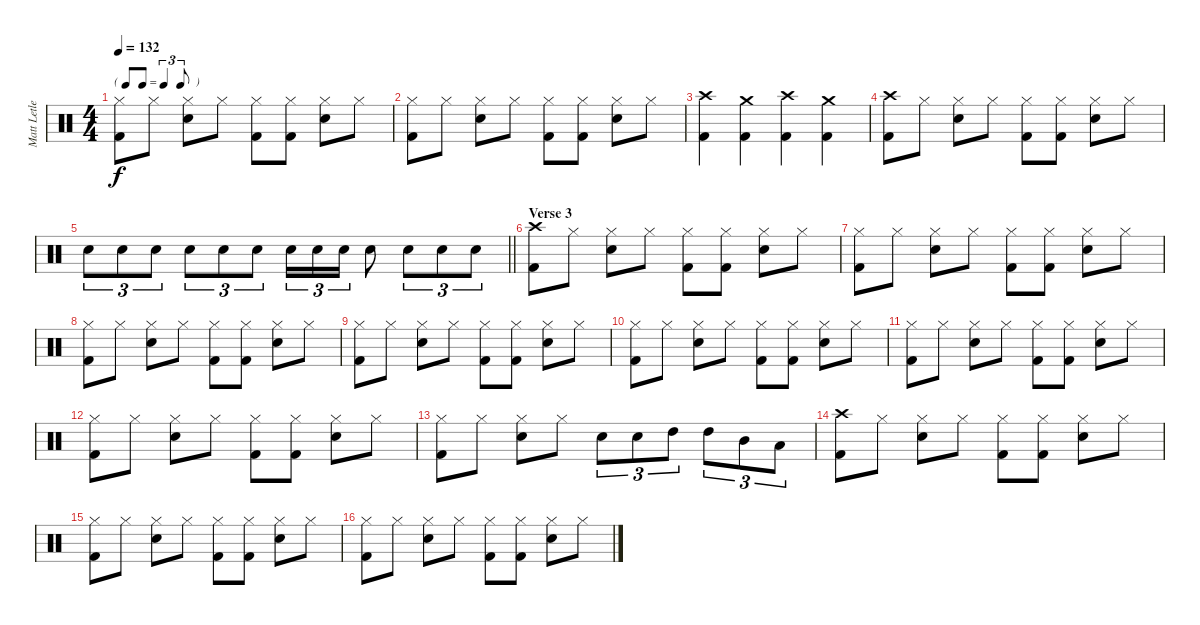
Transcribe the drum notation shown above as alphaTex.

\track ("Matt Letley" "Matt Letle") {instrument percussion}
\staff {score}
\articulation defaults
\ts (4 4)
\tf triplet8th
\tempo 132
\clef neutral
\ks c
("Hi-Hat (closed)" "Kick (hit) 2").8{dy f} "Hi-Hat (closed)".8 ("Hi-Hat (closed)" "Electric Snare (hit)").8 "Hi-Hat (closed)".8 ("Hi-Hat (closed)" "Kick (hit) 2").8 ("Hi-Hat (closed)" "Kick (hit) 2").8 ("Hi-Hat (closed)" "Electric Snare (hit)").8 "Hi-Hat (closed)".8 |
("Hi-Hat (closed)" "Kick (hit) 2").8 "Hi-Hat (closed)".8 ("Hi-Hat (closed)" "Electric Snare (hit)").8 "Hi-Hat (closed)".8 ("Hi-Hat (closed)" "Kick (hit) 2").8 ("Hi-Hat (closed)" "Kick (hit) 2").8 ("Hi-Hat (closed)" "Electric Snare (hit)").8 "Hi-Hat (closed)".8 |
("Crash high (hit)" "Kick (hit) 2").4 ("Crash medium (hit)" "Kick (hit) 2").4 ("Crash high (hit)" "Kick (hit) 2").4 ("Crash medium (hit)" "Kick (hit) 2").4 |
("Crash high (hit)" "Kick (hit) 2").8 "Hi-Hat (closed)".8 ("Hi-Hat (closed)" "Electric Snare (hit)").8 "Hi-Hat (closed)".8 ("Hi-Hat (closed)" "Kick (hit) 2").8 ("Hi-Hat (closed)" "Kick (hit) 2").8 ("Hi-Hat (closed)" "Electric Snare (hit)").8 "Hi-Hat (closed)".8 |
\barLineRight lightlight "Electric Snare (hit)".8{tu (3 2)} "Electric Snare (hit)".8{tu (3 2)} "Electric Snare (hit)".8{tu (3 2)} "Electric Snare (hit)".8{tu (3 2)} "Electric Snare (hit)".8{tu (3 2)} "Electric Snare (hit)".8{tu (3 2)} "Electric Snare (hit)".16{tu (3 2)} "Electric Snare (hit)".16{tu (3 2)} "Electric Snare (hit)".16{tu (3 2)} "Electric Snare (hit)".8 "Electric Snare (hit)".8{tu (3 2)} "Electric Snare (hit)".8{tu (3 2)} "Electric Snare (hit)".8{tu (3 2)}
|
\section ("" "Verse 3")
("Crash high (hit)" "Kick (hit) 2").8 "Hi-Hat (closed)".8 ("Hi-Hat (closed)" "Electric Snare (hit)").8 "Hi-Hat (closed)".8 ("Hi-Hat (closed)" "Kick (hit) 2").8 ("Hi-Hat (closed)" "Kick (hit) 2").8 ("Hi-Hat (closed)" "Electric Snare (hit)").8 "Hi-Hat (closed)".8 |
("Hi-Hat (closed)" "Kick (hit) 2").8 "Hi-Hat (closed)".8 ("Hi-Hat (closed)" "Electric Snare (hit)").8 "Hi-Hat (closed)".8 ("Hi-Hat (closed)" "Kick (hit) 2").8 ("Hi-Hat (closed)" "Kick (hit) 2").8 ("Hi-Hat (closed)" "Electric Snare (hit)").8 "Hi-Hat (closed)".8 |
("Hi-Hat (closed)" "Kick (hit) 2").8 "Hi-Hat (closed)".8 ("Hi-Hat (closed)" "Electric Snare (hit)").8 "Hi-Hat (closed)".8 ("Hi-Hat (closed)" "Kick (hit) 2").8 ("Hi-Hat (closed)" "Kick (hit) 2").8 ("Hi-Hat (closed)" "Electric Snare (hit)").8 "Hi-Hat (closed)".8 |
("Hi-Hat (closed)" "Kick (hit) 2").8 "Hi-Hat (closed)".8 ("Hi-Hat (closed)" "Electric Snare (hit)").8 "Hi-Hat (closed)".8 ("Hi-Hat (closed)" "Kick (hit) 2").8 ("Hi-Hat (closed)" "Kick (hit) 2").8 ("Hi-Hat (closed)" "Electric Snare (hit)").8 "Hi-Hat (closed)".8 |
("Hi-Hat (closed)" "Kick (hit) 2").8 "Hi-Hat (closed)".8 ("Hi-Hat (closed)" "Electric Snare (hit)").8 "Hi-Hat (closed)".8 ("Hi-Hat (closed)" "Kick (hit) 2").8 ("Hi-Hat (closed)" "Kick (hit) 2").8 ("Hi-Hat (closed)" "Electric Snare (hit)").8 "Hi-Hat (closed)".8 |
("Hi-Hat (closed)" "Kick (hit) 2").8 "Hi-Hat (closed)".8 ("Hi-Hat (closed)" "Electric Snare (hit)").8 "Hi-Hat (closed)".8 ("Hi-Hat (closed)" "Kick (hit) 2").8 ("Hi-Hat (closed)" "Kick (hit) 2").8 ("Hi-Hat (closed)" "Electric Snare (hit)").8 "Hi-Hat (closed)".8 |
("Hi-Hat (closed)" "Kick (hit) 2").8 "Hi-Hat (closed)".8 ("Hi-Hat (closed)" "Electric Snare (hit)").8 "Hi-Hat (closed)".8 ("Hi-Hat (closed)" "Kick (hit) 2").8 ("Hi-Hat (closed)" "Kick (hit) 2").8 ("Hi-Hat (closed)" "Electric Snare (hit)").8 "Hi-Hat (closed)".8 |
("Hi-Hat (closed)" "Kick (hit) 2").8 "Hi-Hat (closed)".8 ("Hi-Hat (closed)" "Electric Snare (hit)").8 "Hi-Hat (closed)".8 "Electric Snare (hit)".8{tu (3 2)} "Electric Snare (hit)".8{tu (3 2)} "High Tom (hit)".8{tu (3 2)} "High Tom (hit)".8{tu (3 2)} "Mid Tom (hit)".8{tu (3 2)} "Low Tom (hit)".8{tu (3 2)} |
("Crash high (hit)" "Kick (hit) 2").8 "Hi-Hat (closed)".8 ("Hi-Hat (closed)" "Electric Snare (hit)").8 "Hi-Hat (closed)".8 ("Hi-Hat (closed)" "Kick (hit) 2").8 ("Hi-Hat (closed)" "Kick (hit) 2").8 ("Hi-Hat (closed)" "Electric Snare (hit)").8 "Hi-Hat (closed)".8 |
("Hi-Hat (closed)" "Kick (hit) 2").8 "Hi-Hat (closed)".8 ("Hi-Hat (closed)" "Electric Snare (hit)").8 "Hi-Hat (closed)".8 ("Hi-Hat (closed)" "Kick (hit) 2").8 ("Hi-Hat (closed)" "Kick (hit) 2").8 ("Hi-Hat (closed)" "Electric Snare (hit)").8 "Hi-Hat (closed)".8 |
("Hi-Hat (closed)" "Kick (hit) 2").8 "Hi-Hat (closed)".8 ("Hi-Hat (closed)" "Electric Snare (hit)").8 "Hi-Hat (closed)".8 ("Hi-Hat (closed)" "Kick (hit) 2").8 ("Hi-Hat (closed)" "Kick (hit) 2").8 ("Hi-Hat (closed)" "Electric Snare (hit)").8 "Hi-Hat (closed)".8
